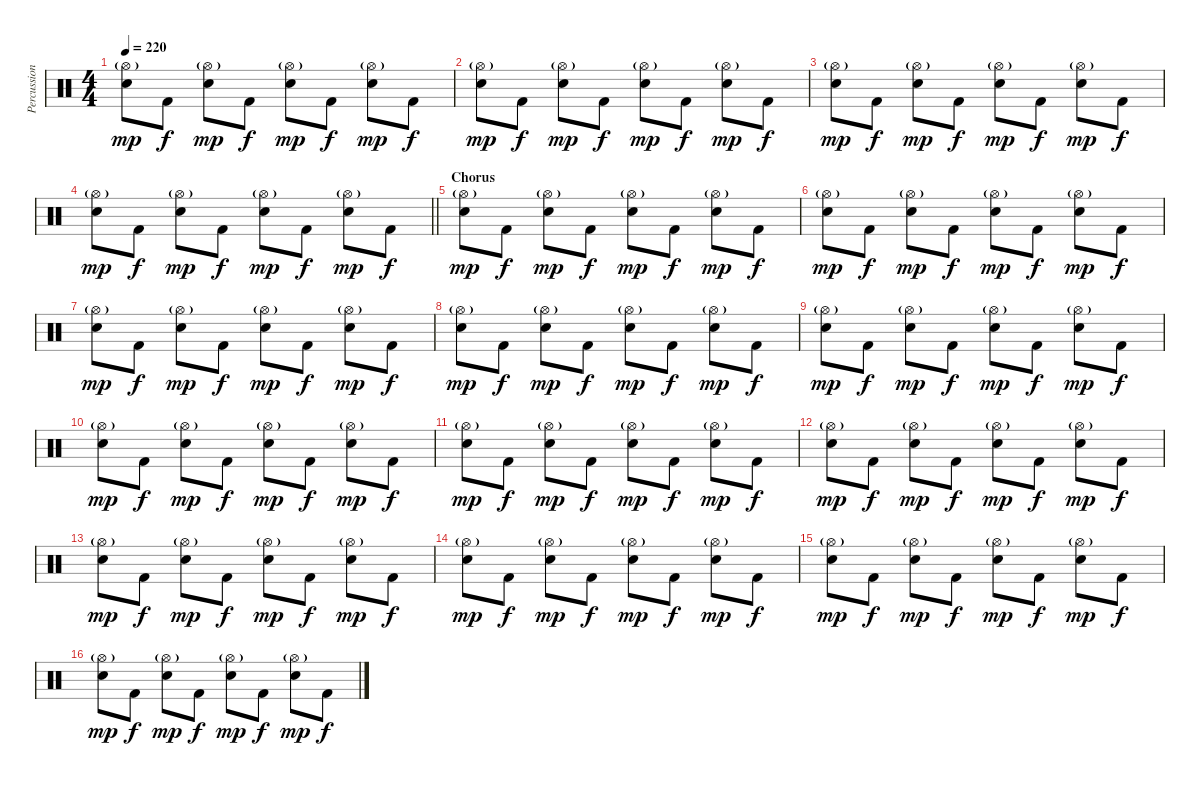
\track ("Percussions" "Percussion") {instrument percussion}
\staff {score}
\articulation defaults
\ts (4 4)
\tempo 220
\clef neutral
\ks c
("Hi-Hat (open)"{g} "Electric Snare (hit)").8{dy mp} "Kick (hit) 2".8{dy f} ("Hi-Hat (open)"{g} "Electric Snare (hit)").8{dy mp} "Kick (hit) 2".8{dy f} ("Hi-Hat (open)"{g} "Electric Snare (hit)").8{dy mp} "Kick (hit) 2".8{dy f} ("Hi-Hat (open)"{g} "Electric Snare (hit)").8{dy mp} "Kick (hit) 2".8{dy f} |
("Hi-Hat (open)"{g} "Electric Snare (hit)").8{dy mp} "Kick (hit) 2".8{dy f} ("Hi-Hat (open)"{g} "Electric Snare (hit)").8{dy mp} "Kick (hit) 2".8{dy f} ("Hi-Hat (open)"{g} "Electric Snare (hit)").8{dy mp} "Kick (hit) 2".8{dy f} ("Hi-Hat (open)"{g} "Electric Snare (hit)").8{dy mp} "Kick (hit) 2".8{dy f} |
("Hi-Hat (open)"{g} "Electric Snare (hit)").8{dy mp} "Kick (hit) 2".8{dy f} ("Hi-Hat (open)"{g} "Electric Snare (hit)").8{dy mp} "Kick (hit) 2".8{dy f} ("Hi-Hat (open)"{g} "Electric Snare (hit)").8{dy mp} "Kick (hit) 2".8{dy f} ("Hi-Hat (open)"{g} "Electric Snare (hit)").8{dy mp} "Kick (hit) 2".8{dy f} |
\barLineRight lightlight
("Hi-Hat (open)"{g} "Electric Snare (hit)").8{dy mp} "Kick (hit) 2".8{dy f} ("Hi-Hat (open)"{g} "Electric Snare (hit)").8{dy mp} "Kick (hit) 2".8{dy f} ("Hi-Hat (open)"{g} "Electric Snare (hit)").8{dy mp} "Kick (hit) 2".8{dy f} ("Hi-Hat (open)"{g} "Electric Snare (hit)").8{dy mp} "Kick (hit) 2".8{dy f} |
\section ("" "Chorus")
("Hi-Hat (open)"{g} "Electric Snare (hit)").8{dy mp} "Kick (hit) 2".8{dy f} ("Hi-Hat (open)"{g} "Electric Snare (hit)").8{dy mp} "Kick (hit) 2".8{dy f} ("Hi-Hat (open)"{g} "Electric Snare (hit)").8{dy mp} "Kick (hit) 2".8{dy f} ("Hi-Hat (open)"{g} "Electric Snare (hit)").8{dy mp} "Kick (hit) 2".8{dy f} |
("Hi-Hat (open)"{g} "Electric Snare (hit)").8{dy mp} "Kick (hit) 2".8{dy f} ("Hi-Hat (open)"{g} "Electric Snare (hit)").8{dy mp} "Kick (hit) 2".8{dy f} ("Hi-Hat (open)"{g} "Electric Snare (hit)").8{dy mp} "Kick (hit) 2".8{dy f} ("Hi-Hat (open)"{g} "Electric Snare (hit)").8{dy mp} "Kick (hit) 2".8{dy f} |
("Hi-Hat (open)"{g} "Electric Snare (hit)").8{dy mp} "Kick (hit) 2".8{dy f} ("Hi-Hat (open)"{g} "Electric Snare (hit)").8{dy mp} "Kick (hit) 2".8{dy f} ("Hi-Hat (open)"{g} "Electric Snare (hit)").8{dy mp} "Kick (hit) 2".8{dy f} ("Hi-Hat (open)"{g} "Electric Snare (hit)").8{dy mp} "Kick (hit) 2".8{dy f} |
("Hi-Hat (open)"{g} "Electric Snare (hit)").8{dy mp} "Kick (hit) 2".8{dy f} ("Hi-Hat (open)"{g} "Electric Snare (hit)").8{dy mp} "Kick (hit) 2".8{dy f} ("Hi-Hat (open)"{g} "Electric Snare (hit)").8{dy mp} "Kick (hit) 2".8{dy f} ("Hi-Hat (open)"{g} "Electric Snare (hit)").8{dy mp} "Kick (hit) 2".8{dy f} |
("Hi-Hat (open)"{g} "Electric Snare (hit)").8{dy mp} "Kick (hit) 2".8{dy f} ("Hi-Hat (open)"{g} "Electric Snare (hit)").8{dy mp} "Kick (hit) 2".8{dy f} ("Hi-Hat (open)"{g} "Electric Snare (hit)").8{dy mp} "Kick (hit) 2".8{dy f} ("Hi-Hat (open)"{g} "Electric Snare (hit)").8{dy mp} "Kick (hit) 2".8{dy f} |
("Hi-Hat (open)"{g} "Electric Snare (hit)").8{dy mp} "Kick (hit) 2".8{dy f} ("Hi-Hat (open)"{g} "Electric Snare (hit)").8{dy mp} "Kick (hit) 2".8{dy f} ("Hi-Hat (open)"{g} "Electric Snare (hit)").8{dy mp} "Kick (hit) 2".8{dy f} ("Hi-Hat (open)"{g} "Electric Snare (hit)").8{dy mp} "Kick (hit) 2".8{dy f} |
("Hi-Hat (open)"{g} "Electric Snare (hit)").8{dy mp} "Kick (hit) 2".8{dy f} ("Hi-Hat (open)"{g} "Electric Snare (hit)").8{dy mp} "Kick (hit) 2".8{dy f} ("Hi-Hat (open)"{g} "Electric Snare (hit)").8{dy mp} "Kick (hit) 2".8{dy f} ("Hi-Hat (open)"{g} "Electric Snare (hit)").8{dy mp} "Kick (hit) 2".8{dy f} |
("Hi-Hat (open)"{g} "Electric Snare (hit)").8{dy mp} "Kick (hit) 2".8{dy f} ("Hi-Hat (open)"{g} "Electric Snare (hit)").8{dy mp} "Kick (hit) 2".8{dy f} ("Hi-Hat (open)"{g} "Electric Snare (hit)").8{dy mp} "Kick (hit) 2".8{dy f} ("Hi-Hat (open)"{g} "Electric Snare (hit)").8{dy mp} "Kick (hit) 2".8{dy f} |
("Hi-Hat (open)"{g} "Electric Snare (hit)").8{dy mp} "Kick (hit) 2".8{dy f} ("Hi-Hat (open)"{g} "Electric Snare (hit)").8{dy mp} "Kick (hit) 2".8{dy f} ("Hi-Hat (open)"{g} "Electric Snare (hit)").8{dy mp} "Kick (hit) 2".8{dy f} ("Hi-Hat (open)"{g} "Electric Snare (hit)").8{dy mp} "Kick (hit) 2".8{dy f} |
("Hi-Hat (open)"{g} "Electric Snare (hit)").8{dy mp} "Kick (hit) 2".8{dy f} ("Hi-Hat (open)"{g} "Electric Snare (hit)").8{dy mp} "Kick (hit) 2".8{dy f} ("Hi-Hat (open)"{g} "Electric Snare (hit)").8{dy mp} "Kick (hit) 2".8{dy f} ("Hi-Hat (open)"{g} "Electric Snare (hit)").8{dy mp} "Kick (hit) 2".8{dy f} |
("Hi-Hat (open)"{g} "Electric Snare (hit)").8{dy mp} "Kick (hit) 2".8{dy f} ("Hi-Hat (open)"{g} "Electric Snare (hit)").8{dy mp} "Kick (hit) 2".8{dy f} ("Hi-Hat (open)"{g} "Electric Snare (hit)").8{dy mp} "Kick (hit) 2".8{dy f} ("Hi-Hat (open)"{g} "Electric Snare (hit)").8{dy mp} "Kick (hit) 2".8{dy f} |
("Hi-Hat (open)"{g} "Electric Snare (hit)").8{dy mp} "Kick (hit) 2".8{dy f} ("Hi-Hat (open)"{g} "Electric Snare (hit)").8{dy mp} "Kick (hit) 2".8{dy f} ("Hi-Hat (open)"{g} "Electric Snare (hit)").8{dy mp} "Kick (hit) 2".8{dy f} ("Hi-Hat (open)"{g} "Electric Snare (hit)").8{dy mp} "Kick (hit) 2".8{dy f}
